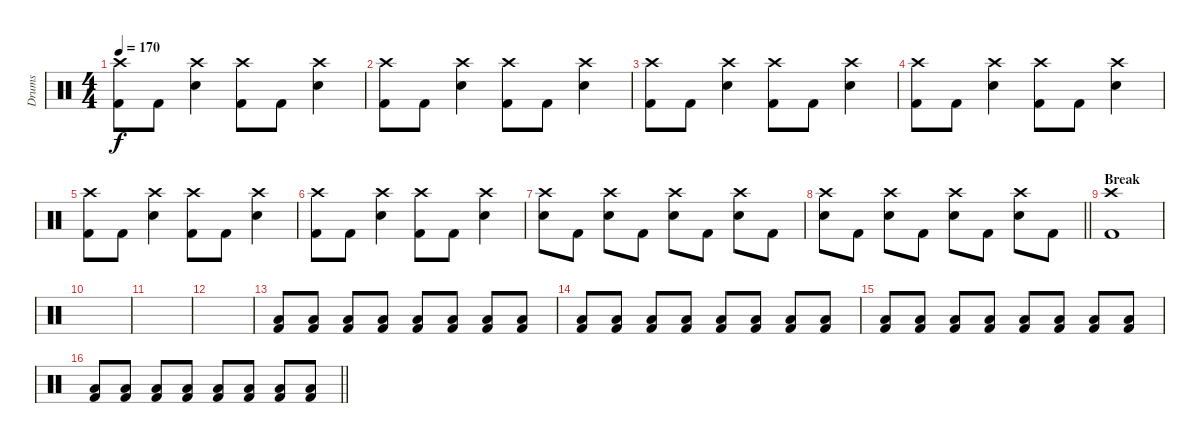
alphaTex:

\track ("Drums" "Drums") {instrument percussion}
\staff {score}
\articulation defaults
\ts (4 4)
\tempo 170
\clef neutral
\ks c
("Crash high (hit)" "Kick (hit) 2").8{dy f} "Kick (hit) 2".8 ("Electric Snare (hit)" "Crash high (hit)").4 ("Crash high (hit)" "Kick (hit) 2").8 "Kick (hit) 2".8 ("Electric Snare (hit)" "Crash high (hit)").4 |
("Crash high (hit)" "Kick (hit) 2").8 "Kick (hit) 2".8 ("Electric Snare (hit)" "Crash high (hit)").4 ("Crash high (hit)" "Kick (hit) 2").8 "Kick (hit) 2".8 ("Electric Snare (hit)" "Crash high (hit)").4 |
("Crash high (hit)" "Kick (hit) 2").8 "Kick (hit) 2".8 ("Electric Snare (hit)" "Crash high (hit)").4 ("Crash high (hit)" "Kick (hit) 2").8 "Kick (hit) 2".8 ("Electric Snare (hit)" "Crash high (hit)").4 |
("Crash high (hit)" "Kick (hit) 2").8 "Kick (hit) 2".8 ("Electric Snare (hit)" "Crash high (hit)").4 ("Crash high (hit)" "Kick (hit) 2").8 "Kick (hit) 2".8 ("Electric Snare (hit)" "Crash high (hit)").4 |
("Crash high (hit)" "Kick (hit) 2").8 "Kick (hit) 2".8 ("Electric Snare (hit)" "Crash high (hit)").4 ("Crash high (hit)" "Kick (hit) 2").8 "Kick (hit) 2".8 ("Electric Snare (hit)" "Crash high (hit)").4 |
("Crash high (hit)" "Kick (hit) 2").8 "Kick (hit) 2".8 ("Electric Snare (hit)" "Crash high (hit)").4 ("Crash high (hit)" "Kick (hit) 2").8 "Kick (hit) 2".8 ("Electric Snare (hit)" "Crash high (hit)").4 |
("Electric Snare (hit)" "Crash high (hit)").8 "Kick (hit) 2".8 ("Electric Snare (hit)" "Crash high (hit)").8 "Kick (hit) 2".8 ("Electric Snare (hit)" "Crash high (hit)").8 "Kick (hit) 2".8 ("Electric Snare (hit)" "Crash high (hit)").8 "Kick (hit) 2".8 |
\barLineRight lightlight
("Electric Snare (hit)" "Crash high (hit)").8 "Kick (hit) 2".8 ("Electric Snare (hit)" "Crash high (hit)").8 "Kick (hit) 2".8 ("Electric Snare (hit)" "Crash high (hit)").8 "Kick (hit) 2".8 ("Electric Snare (hit)" "Crash high (hit)").8 "Kick (hit) 2".8 |
\section ("" "Break")
("Crash high (hit)" "Kick (hit) 2").1 |
|
|
|
("Low Tom (hit)" "Kick (hit) 2").8 ("Low Tom (hit)" "Kick (hit) 2").8 ("Low Tom (hit)" "Kick (hit) 2").8 ("Low Tom (hit)" "Kick (hit) 2").8 ("Low Tom (hit)" "Kick (hit) 2").8 ("Low Tom (hit)" "Kick (hit) 2").8 ("Low Tom (hit)" "Kick (hit) 2").8 ("Low Tom (hit)" "Kick (hit) 2").8 |
("Low Tom (hit)" "Kick (hit) 2").8 ("Low Tom (hit)" "Kick (hit) 2").8 ("Low Tom (hit)" "Kick (hit) 2").8 ("Low Tom (hit)" "Kick (hit) 2").8 ("Low Tom (hit)" "Kick (hit) 2").8 ("Low Tom (hit)" "Kick (hit) 2").8 ("Low Tom (hit)" "Kick (hit) 2").8 ("Low Tom (hit)" "Kick (hit) 2").8 |
("Low Tom (hit)" "Kick (hit) 2").8 ("Low Tom (hit)" "Kick (hit) 2").8 ("Low Tom (hit)" "Kick (hit) 2").8 ("Low Tom (hit)" "Kick (hit) 2").8 ("Low Tom (hit)" "Kick (hit) 2").8 ("Low Tom (hit)" "Kick (hit) 2").8 ("Low Tom (hit)" "Kick (hit) 2").8 ("Low Tom (hit)" "Kick (hit) 2").8 |
\barLineRight lightlight
("Low Tom (hit)" "Kick (hit) 2").8 ("Low Tom (hit)" "Kick (hit) 2").8 ("Low Tom (hit)" "Kick (hit) 2").8 ("Low Tom (hit)" "Kick (hit) 2").8 ("Low Tom (hit)" "Kick (hit) 2").8 ("Low Tom (hit)" "Kick (hit) 2").8 ("Low Tom (hit)" "Kick (hit) 2").8 ("Low Tom (hit)" "Kick (hit) 2").8
